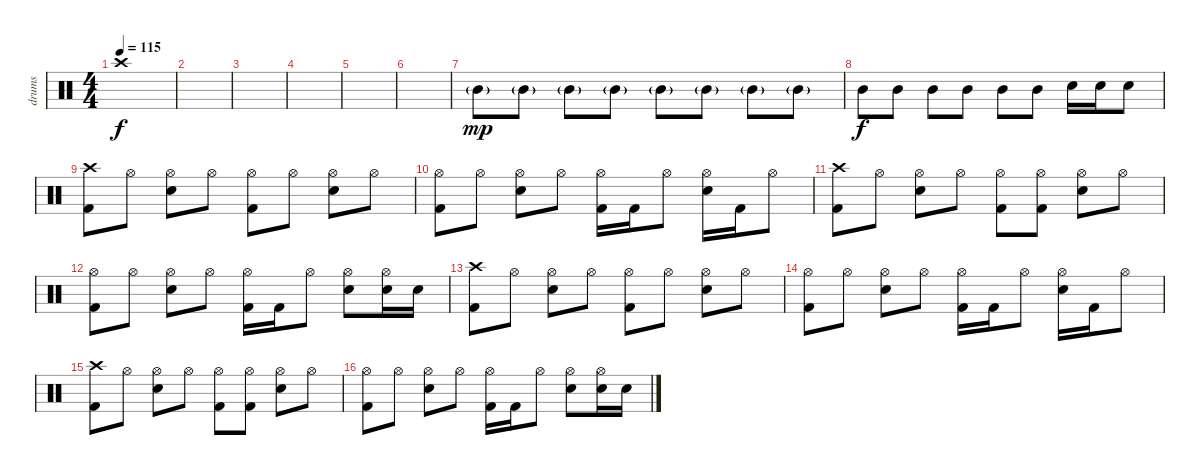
\track ("drums" "drums") {instrument percussion}
\staff {score}
\articulation defaults
\ts (4 4)
\tempo 115
\clef neutral
\ks c "Crash high (hit)".1{dy f}
|
|
|
|
|
|
"Mid Tom (hit)"{g}.8{dy mp} "Mid Tom (hit)"{g}.8 "Mid Tom (hit)"{g}.8 "Mid Tom (hit)"{g}.8 "Mid Tom (hit)"{g}.8 "Mid Tom (hit)"{g}.8 "Mid Tom (hit)"{g}.8 "Mid Tom (hit)"{g}.8 |
"Mid Tom (hit)".8{dy f} "Mid Tom (hit)".8 "Mid Tom (hit)".8 "Mid Tom (hit)".8 "Mid Tom (hit)".8 "Mid Tom (hit)".8 "Snare (hit) 2".16 "Snare (hit) 2".16 "Snare (hit) 2".8 |
("Crash high (hit)" "Kick (hit) 2").8 "Hi-Hat (open)".8 ("Hi-Hat (open)" "Snare (hit) 2").8 "Hi-Hat (open)".8 ("Hi-Hat (open)" "Kick (hit) 2").8 "Hi-Hat (open)".8 ("Hi-Hat (open)" "Snare (hit) 2").8 "Hi-Hat (open)".8 |
("Hi-Hat (open)" "Kick (hit) 2").8 "Hi-Hat (open)".8 ("Hi-Hat (open)" "Snare (hit) 2").8 "Hi-Hat (open)".8 ("Hi-Hat (open)" "Kick (hit) 2").16 "Kick (hit) 2".16 "Hi-Hat (open)".8 ("Hi-Hat (open)" "Snare (hit) 2").16 "Kick (hit) 2".16 "Hi-Hat (open)".8 |
("Crash high (hit)" "Kick (hit) 2").8 "Hi-Hat (open)".8 ("Hi-Hat (open)" "Snare (hit) 2").8 "Hi-Hat (open)".8 ("Hi-Hat (open)" "Kick (hit) 2").8 ("Hi-Hat (open)" "Kick (hit) 2").8 ("Hi-Hat (open)" "Snare (hit) 2").8 "Hi-Hat (open)".8 |
("Hi-Hat (open)" "Kick (hit) 2").8 "Hi-Hat (open)".8 ("Hi-Hat (open)" "Snare (hit) 2").8 "Hi-Hat (open)".8 ("Hi-Hat (open)" "Kick (hit) 2").16 "Kick (hit) 2".16 "Hi-Hat (open)".8 ("Hi-Hat (open)" "Snare (hit) 2").8 ("Hi-Hat (open)" "Snare (hit) 2").16 "Snare (hit) 2".16 |
("Crash high (hit)" "Kick (hit) 2").8 "Hi-Hat (open)".8 ("Hi-Hat (open)" "Snare (hit) 2").8 "Hi-Hat (open)".8 ("Hi-Hat (open)" "Kick (hit) 2").8 "Hi-Hat (open)".8 ("Hi-Hat (open)" "Snare (hit) 2").8 "Hi-Hat (open)".8 |
("Hi-Hat (open)" "Kick (hit) 2").8 "Hi-Hat (open)".8 ("Hi-Hat (open)" "Snare (hit) 2").8 "Hi-Hat (open)".8 ("Hi-Hat (open)" "Kick (hit) 2").16 "Kick (hit) 2".16 "Hi-Hat (open)".8 ("Hi-Hat (open)" "Snare (hit) 2").16 "Kick (hit) 2".16 "Hi-Hat (open)".8 |
("Crash high (hit)" "Kick (hit) 2").8 "Hi-Hat (open)".8 ("Hi-Hat (open)" "Snare (hit) 2").8 "Hi-Hat (open)".8 ("Hi-Hat (open)" "Kick (hit) 2").8 ("Hi-Hat (open)" "Kick (hit) 2").8 ("Hi-Hat (open)" "Snare (hit) 2").8 "Hi-Hat (open)".8 |
("Hi-Hat (open)" "Kick (hit) 2").8 "Hi-Hat (open)".8 ("Hi-Hat (open)" "Snare (hit) 2").8 "Hi-Hat (open)".8 ("Hi-Hat (open)" "Kick (hit) 2").16 "Kick (hit) 2".16 "Hi-Hat (open)".8 ("Hi-Hat (open)" "Snare (hit) 2").8 ("Hi-Hat (open)" "Snare (hit) 2").16 "Snare (hit) 2".16
